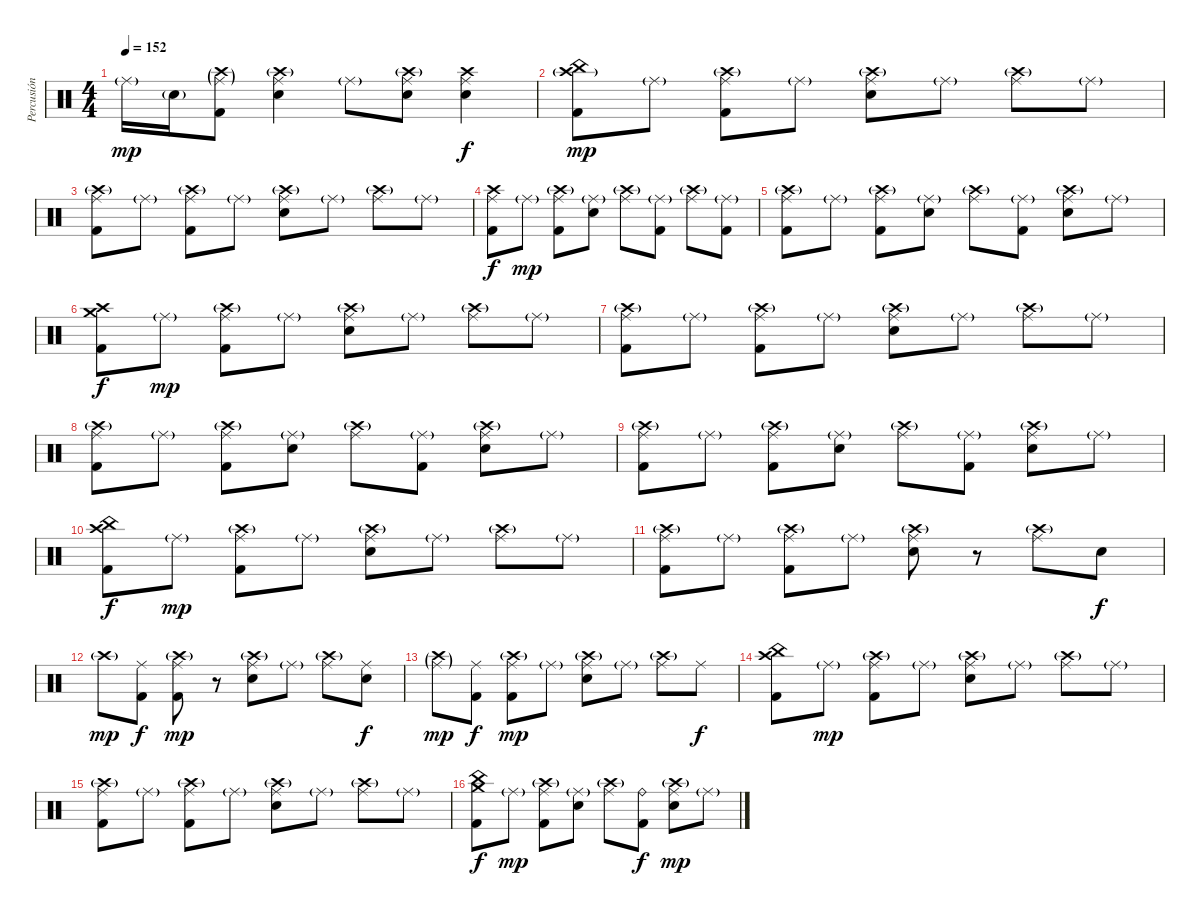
\track ("Percusión" "Percusión") {instrument percussion}
\staff {score}
\articulation defaults
\ts (4 4)
\tempo 152
\clef neutral
\ks c "Ride (middle)"{g}.16{dy mp} "Snare (hit) 2"{g}.16
("Crash high (hit)"{g} "Ride (middle)"{g} "Kick (hit) 2").8 ("Crash high (hit)"{g} "Ride (middle)" "Snare (hit) 2").4 "Ride (middle)"{g}.8 ("Crash high (hit)"{g} "Ride (middle)" "Snare (hit) 2").8 ("Crash high (hit)" "Ride (middle)" "Snare (hit) 2").4{dy f} |
("China (hit)" "Crash high (hit)"{g} "Kick (hit) 2").8{dy mp} "Ride (middle)"{g}.8 ("Crash high (hit)"{g} "Ride (middle)" "Kick (hit) 2").8 "Ride (middle)"{g}.8 ("Crash high (hit)"{g} "Ride (middle)" "Snare (hit) 2").8 "Ride (middle)"{g}.8 ("Crash high (hit)"{g} "Ride (middle)").8 "Ride (middle)"{g}.8 |
("Crash high (hit)"{g} "Ride (middle)" "Kick (hit) 2").8 "Ride (middle)"{g}.8 ("Crash high (hit)"{g} "Ride (middle)" "Kick (hit) 2").8 "Ride (middle)"{g}.8 ("Crash high (hit)"{g} "Ride (middle)" "Snare (hit) 2").8 "Ride (middle)"{g}.8 ("Crash high (hit)"{g} "Ride (middle)").8 "Ride (middle)"{g}.8 |
("Crash high (hit)" "Ride (middle)" "Kick (hit) 2").8{dy f} "Ride (middle)"{g}.8{dy mp} ("Crash high (hit)"{g} "Ride (middle)" "Kick (hit) 2").8 ("Ride (middle)"{g} "Snare (hit) 2").8 ("Crash high (hit)"{g} "Ride (middle)").8 ("Ride (middle)"{g} "Kick (hit) 2").8 ("Crash high (hit)"{g} "Ride (middle)").8 ("Ride (middle)"{g} "Kick (hit) 2").8 |
("Crash high (hit)"{g} "Ride (middle)" "Kick (hit) 2").8 "Ride (middle)"{g}.8 ("Crash high (hit)"{g} "Ride (middle)" "Kick (hit) 2").8 ("Ride (middle)"{g} "Snare (hit) 2").8 ("Crash high (hit)"{g} "Ride (middle)").8 ("Ride (middle)"{g} "Kick (hit) 2").8 ("Crash high (hit)"{g} "Ride (middle)" "Snare (hit) 2").8 "Ride (middle)"{g}.8 |
("Crash high (hit)" "Crash medium (hit)" "Kick (hit) 2").8{dy f} "Ride (middle)"{g}.8{dy mp} ("Crash high (hit)"{g} "Ride (middle)" "Kick (hit) 2").8 "Ride (middle)"{g}.8 ("Crash high (hit)"{g} "Ride (middle)" "Snare (hit) 2").8 "Ride (middle)"{g}.8 ("Crash high (hit)"{g} "Ride (middle)").8 "Ride (middle)"{g}.8 |
("Crash high (hit)"{g} "Ride (middle)" "Kick (hit) 2").8 "Ride (middle)"{g}.8 ("Crash high (hit)"{g} "Ride (middle)" "Kick (hit) 2").8 "Ride (middle)"{g}.8 ("Crash high (hit)"{g} "Ride (middle)" "Snare (hit) 2").8 "Ride (middle)"{g}.8 ("Crash high (hit)"{g} "Ride (middle)").8 "Ride (middle)"{g}.8 |
("Crash high (hit)"{g} "Ride (middle)" "Kick (hit) 2").8 "Ride (middle)"{g}.8 ("Crash high (hit)"{g} "Ride (middle)" "Kick (hit) 2").8 ("Ride (middle)"{g} "Snare (hit) 2").8 ("Crash high (hit)"{g} "Ride (middle)").8 ("Ride (middle)"{g} "Kick (hit) 2").8 ("Crash high (hit)"{g} "Ride (middle)" "Snare (hit) 2").8 "Ride (middle)"{g}.8 |
("Crash high (hit)"{g} "Ride (middle)" "Kick (hit) 2").8 "Ride (middle)"{g}.8 ("Crash high (hit)"{g} "Ride (middle)" "Kick (hit) 2").8 ("Ride (middle)"{g} "Snare (hit) 2").8 ("Crash high (hit)"{g} "Ride (middle)").8 ("Ride (middle)"{g} "Kick (hit) 2").8 ("Crash high (hit)"{g} "Ride (middle)" "Snare (hit) 2").8 "Ride (middle)"{g}.8 |
("Crash high (hit)" "China (hit)" "Kick (hit) 2").8{dy f} "Ride (middle)"{g}.8{dy mp} ("Crash high (hit)"{g} "Ride (middle)" "Kick (hit) 2").8 "Ride (middle)"{g}.8 ("Crash high (hit)"{g} "Ride (middle)" "Snare (hit) 2").8 "Ride (middle)"{g}.8 ("Crash high (hit)"{g} "Ride (middle)").8 "Ride (middle)"{g}.8 |
("Crash high (hit)"{g} "Ride (middle)" "Kick (hit) 2").8 "Ride (middle)"{g}.8 ("Crash high (hit)"{g} "Ride (middle)" "Kick (hit) 2").8 "Ride (middle)"{g}.8 ("Crash high (hit)"{g} "Ride (middle)" "Snare (hit) 2").8 r.8 ("Crash high (hit)"{g} "Ride (middle)").8 "Snare (hit) 2".8{dy f} |
"Crash high (hit)"{g}.8{dy mp} ("Ride (middle)" "Kick (hit) 2").8{dy f} ("Crash high (hit)"{g} "Ride (middle)" "Kick (hit) 2").8{dy mp} r.8 ("Crash high (hit)"{g} "Ride (middle)" "Snare (hit) 2").8 "Ride (middle)"{g}.8 ("Crash high (hit)"{g} "Ride (middle)").8 ("Ride (middle)" "Snare (hit) 2").8{dy f} |
("Crash high (hit)"{g} "Ride (middle)"{g}).8{dy mp} ("Ride (middle)" "Kick (hit) 2").8{dy f} ("Crash high (hit)"{g} "Ride (middle)" "Kick (hit) 2").8{dy mp} "Ride (middle)"{g}.8 ("Crash high (hit)"{g} "Ride (middle)" "Snare (hit) 2").8 "Ride (middle)"{g}.8 ("Crash high (hit)"{g} "Ride (middle)").8 "Ride (middle)".8{dy f} |
("Crash high (hit)" "China (hit)" "Kick (hit) 2").8 "Ride (middle)"{g}.8{dy mp} ("Crash high (hit)"{g} "Ride (middle)" "Kick (hit) 2").8 "Ride (middle)"{g}.8 ("Crash high (hit)"{g} "Ride (middle)" "Snare (hit) 2").8 "Ride (middle)"{g}.8 ("Crash high (hit)"{g} "Ride (middle)").8 "Ride (middle)"{g}.8 |
("Crash high (hit)"{g} "Ride (middle)" "Kick (hit) 2").8 "Ride (middle)"{g}.8 ("Crash high (hit)"{g} "Ride (middle)" "Kick (hit) 2").8 "Ride (middle)"{g}.8 ("Crash high (hit)"{g} "Ride (middle)" "Snare (hit) 2").8 "Ride (middle)"{g}.8 ("Crash high (hit)"{g} "Ride (middle)").8 "Ride (middle)"{g}.8 |
("Crash medium (hit)" "China (hit)" "Kick (hit) 2").8{dy f} "Ride (middle)"{g}.8{dy mp} ("Crash high (hit)"{g} "Ride (middle)" "Kick (hit) 2").8 ("Ride (middle)"{g} "Snare (hit) 2").8 ("Crash high (hit)"{g} "Ride (middle)").8 ("Ride (bell)" "Kick (hit) 2").8{dy f} ("Crash high (hit)"{g} "Ride (middle)" "Snare (hit) 2").8{dy mp} "Ride (middle)"{g}.8
